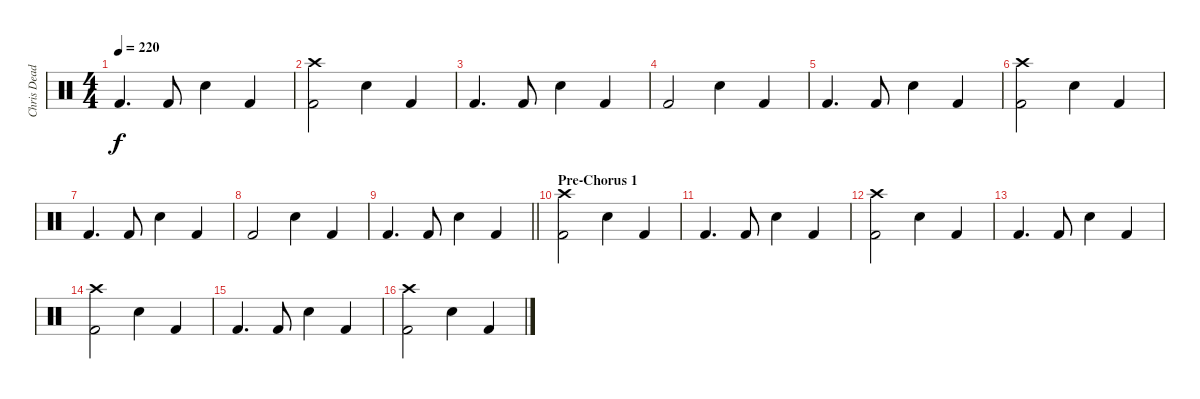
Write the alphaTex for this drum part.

\track ("Chris Dead" "Chris Dead") {instrument percussion}
\staff {score}
\articulation defaults
\ts (4 4)
\tempo 220
\clef neutral
\ks c "Kick (hit) 2".4{d dy f} "Kick (hit) 2".8 "Electric Snare (hit)".4 "Kick (hit) 2".4
|
("Crash high (hit)" "Kick (hit) 2").2 "Electric Snare (hit)".4 "Kick (hit) 2".4 |
"Kick (hit) 2".4{d} "Kick (hit) 2".8 "Electric Snare (hit)".4 "Kick (hit) 2".4 |
"Kick (hit) 2".2 "Electric Snare (hit)".4 "Kick (hit) 2".4 |
"Kick (hit) 2".4{d} "Kick (hit) 2".8 "Electric Snare (hit)".4 "Kick (hit) 2".4 |
("Crash high (hit)" "Kick (hit) 2").2 "Electric Snare (hit)".4 "Kick (hit) 2".4 |
"Kick (hit) 2".4{d} "Kick (hit) 2".8 "Electric Snare (hit)".4 "Kick (hit) 2".4 |
"Kick (hit) 2".2 "Electric Snare (hit)".4 "Kick (hit) 2".4 |
\barLineRight lightlight "Kick (hit) 2".4{d} "Kick (hit) 2".8 "Electric Snare (hit)".4 "Kick (hit) 2".4
|
\section ("" "Pre-Chorus 1")
("Crash high (hit)" "Kick (hit) 2").2 "Electric Snare (hit)".4 "Kick (hit) 2".4 |
"Kick (hit) 2".4{d} "Kick (hit) 2".8 "Electric Snare (hit)".4 "Kick (hit) 2".4 |
("Crash high (hit)" "Kick (hit) 2").2 "Electric Snare (hit)".4 "Kick (hit) 2".4 |
"Kick (hit) 2".4{d} "Kick (hit) 2".8 "Electric Snare (hit)".4 "Kick (hit) 2".4 |
("Crash high (hit)" "Kick (hit) 2").2 "Electric Snare (hit)".4 "Kick (hit) 2".4 |
"Kick (hit) 2".4{d} "Kick (hit) 2".8 "Electric Snare (hit)".4 "Kick (hit) 2".4 |
("Crash high (hit)" "Kick (hit) 2").2 "Electric Snare (hit)".4 "Kick (hit) 2".4
